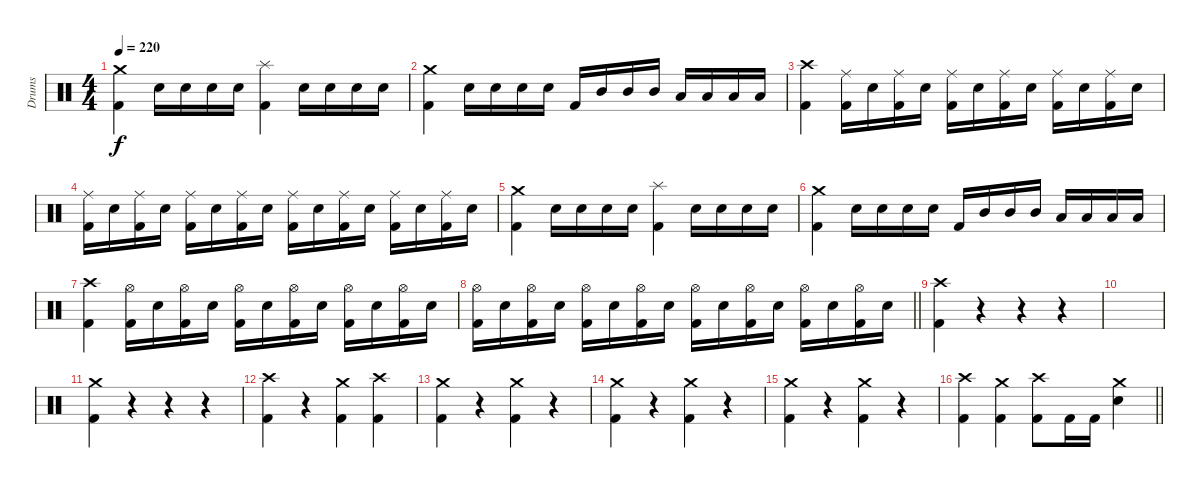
\track ("Drums" "Drums") {instrument percussion}
\staff {score}
\articulation defaults
\ts (4 4)
\tempo 220
\clef neutral
\ks c
("Crash medium (hit)" "Kick (hit) 2").4{dy f} "Snare (hit) 2".16 "Snare (hit) 2".16 "Snare (hit) 2".16 "Snare (hit) 2".16 ("Splash (hit)" "Kick (hit) 2").4 "Snare (hit) 2".16 "Snare (hit) 2".16 "Snare (hit) 2".16 "Snare (hit) 2".16 |
("Crash medium (hit)" "Kick (hit) 2").4 "Snare (hit) 2".16 "Snare (hit) 2".16 "Snare (hit) 2".16 "Snare (hit) 2".16 "Kick (hit) 2".16 "Mid Tom (hit)".16 "Mid Tom (hit)".16 "Mid Tom (hit)".16 "Low Tom (hit)".16 "Low Tom (hit)".16 "Low Tom (hit)".16 "Low Tom (hit)".16 |
("Crash high (hit)" "Kick (hit) 2").4 ("Ride (middle)" "Kick (hit) 2").16 "Snare (hit) 2".16 ("Ride (middle)" "Kick (hit) 2").16 "Snare (hit) 2".16 ("Ride (middle)" "Kick (hit) 2").16 "Snare (hit) 2".16 ("Ride (middle)" "Kick (hit) 2").16 "Snare (hit) 2".16 ("Ride (middle)" "Kick (hit) 2").16 "Snare (hit) 2".16 ("Ride (middle)" "Kick (hit) 2").16 "Snare (hit) 2".16 |
("Ride (middle)" "Kick (hit) 2").16 "Snare (hit) 2".16 ("Ride (middle)" "Kick (hit) 2").16 "Snare (hit) 2".16 ("Ride (middle)" "Kick (hit) 2").16 "Snare (hit) 2".16 ("Ride (middle)" "Kick (hit) 2").16 "Snare (hit) 2".16 ("Ride (middle)" "Kick (hit) 2").16 "Snare (hit) 2".16 ("Ride (middle)" "Kick (hit) 2").16 "Snare (hit) 2".16 ("Ride (middle)" "Kick (hit) 2").16 "Snare (hit) 2".16 ("Ride (middle)" "Kick (hit) 2").16 "Snare (hit) 2".16 |
("Crash medium (hit)" "Kick (hit) 2").4 "Snare (hit) 2".16 "Snare (hit) 2".16 "Snare (hit) 2".16 "Snare (hit) 2".16 ("Splash (hit)" "Kick (hit) 2").4 "Snare (hit) 2".16 "Snare (hit) 2".16 "Snare (hit) 2".16 "Snare (hit) 2".16 |
("Crash medium (hit)" "Kick (hit) 2").4 "Snare (hit) 2".16 "Snare (hit) 2".16 "Snare (hit) 2".16 "Snare (hit) 2".16 "Kick (hit) 2".16 "Mid Tom (hit)".16 "Mid Tom (hit)".16 "Mid Tom (hit)".16 "Low Tom (hit)".16 "Low Tom (hit)".16 "Low Tom (hit)".16 "Low Tom (hit)".16 |
("Crash high (hit)" "Kick (hit) 2").4 ("Hi-Hat (open)" "Kick (hit) 2").16 "Snare (hit) 2".16 ("Hi-Hat (open)" "Kick (hit) 2").16 "Snare (hit) 2".16 ("Hi-Hat (open)" "Kick (hit) 2").16 "Snare (hit) 2".16 ("Hi-Hat (open)" "Kick (hit) 2").16 "Snare (hit) 2".16 ("Hi-Hat (open)" "Kick (hit) 2").16 "Snare (hit) 2".16 ("Hi-Hat (open)" "Kick (hit) 2").16 "Snare (hit) 2".16 |
\barLineRight lightlight
("Hi-Hat (open)" "Kick (hit) 2").16 "Snare (hit) 2".16 ("Hi-Hat (open)" "Kick (hit) 2").16 "Snare (hit) 2".16 ("Hi-Hat (open)" "Kick (hit) 2").16 "Snare (hit) 2".16 ("Hi-Hat (open)" "Kick (hit) 2").16 "Snare (hit) 2".16 ("Hi-Hat (open)" "Kick (hit) 2").16 "Snare (hit) 2".16 ("Hi-Hat (open)" "Kick (hit) 2").16 "Snare (hit) 2".16 ("Hi-Hat (open)" "Kick (hit) 2").16 "Snare (hit) 2".16 ("Hi-Hat (open)" "Kick (hit) 2").16 "Snare (hit) 2".16 |
\section ("" "")
("Crash high (hit)" "Kick (hit) 2").4{volume 16} r.4{volume 0} r.4 r.4 |
|
("Crash medium (hit)" "Kick (hit) 2").4{volume 16} r.4{volume 0} r.4 r.4 |
("Crash high (hit)" "Kick (hit) 2").4{volume 16} r.4{volume 0} ("Crash medium (hit)" "Kick (hit) 2").4{volume 16} ("Crash high (hit)" "Kick (hit) 2").4 |
("Crash medium (hit)" "Kick (hit) 2").4 r.4{volume 0} ("Crash medium (hit)" "Kick (hit) 2").4{volume 16} r.4{volume 0} |
("Crash medium (hit)" "Kick (hit) 2").4{volume 16} r.4{volume 0} ("Crash medium (hit)" "Kick (hit) 2").4{volume 16} r.4{volume 0} |
("Crash medium (hit)" "Kick (hit) 2").4{volume 16} r.4{volume 0} ("Crash medium (hit)" "Kick (hit) 2").4{volume 16} r.4{volume 0} |
\barLineRight lightlight
("Crash high (hit)" "Kick (hit) 2").4{volume 16} ("Crash medium (hit)" "Kick (hit) 2").4 ("Crash high (hit)" "Kick (hit) 2").8 "Kick (hit) 2".16 "Kick (hit) 2".16 ("Crash medium (hit)" "Snare (hit) 2").4
